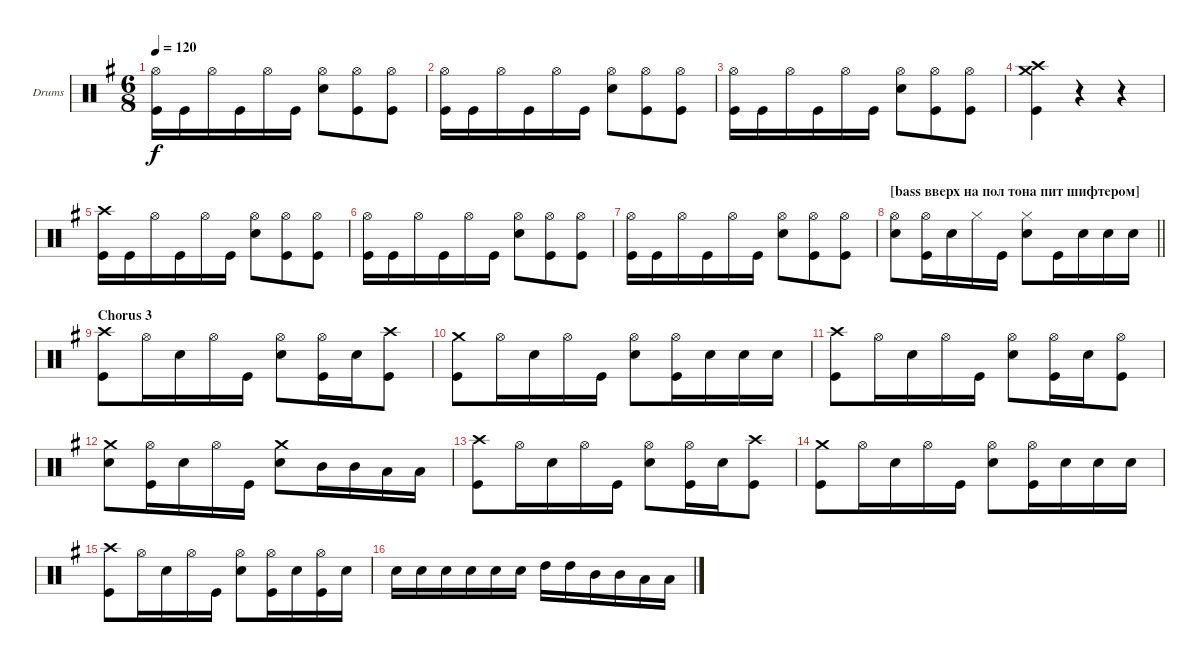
\bracketExtendMode groupsimilarinstruments
\firstSystemTrackNameOrientation horizontal
\otherSystemsTrackNameOrientation horizontal
\track ("drums (Anton Zulganov)" "Drums") {instrument percussion}
\staff {score}
\articulation defaults
\ts (6 8)
\tempo 120
\clef neutral
\ks eminor
("Kick (hit)" "Hi-Hat (open)").16{dy f} "Kick (hit)".16 "Hi-Hat (open)".16 "Kick (hit)".16 "Hi-Hat (open)".16 "Kick (hit)".16 ("Snare (hit) 2" "Hi-Hat (open)").8 ("Kick (hit)" "Hi-Hat (open)").8 ("Kick (hit)" "Hi-Hat (open)").8 |
("Kick (hit)" "Hi-Hat (open)").16 "Kick (hit)".16 "Hi-Hat (open)".16 "Kick (hit)".16 "Hi-Hat (open)".16 "Kick (hit)".16 ("Snare (hit) 2" "Hi-Hat (open)").8 ("Kick (hit)" "Hi-Hat (open)").8 ("Kick (hit)" "Hi-Hat (open)").8 |
("Kick (hit)" "Hi-Hat (open)").16 "Kick (hit)".16 "Hi-Hat (open)".16 "Kick (hit)".16 "Hi-Hat (open)".16 "Kick (hit)".16 ("Snare (hit) 2" "Hi-Hat (open)").8 ("Kick (hit)" "Hi-Hat (open)").8 ("Kick (hit)" "Hi-Hat (open)").8 |
("Kick (hit)" "Crash high (hit)" "Crash medium (hit)").4 r.4 r.4 |
("Kick (hit)" "Crash high (hit)").16 "Kick (hit)".16 "Hi-Hat (open)".16 "Kick (hit)".16 "Hi-Hat (open)".16 "Kick (hit)".16 ("Snare (hit) 2" "Hi-Hat (open)").8 ("Kick (hit)" "Hi-Hat (open)").8 ("Kick (hit)" "Hi-Hat (open)").8 |
("Kick (hit)" "Hi-Hat (open)").16 "Kick (hit)".16 "Hi-Hat (open)".16 "Kick (hit)".16 "Hi-Hat (open)".16 "Kick (hit)".16 ("Snare (hit) 2" "Hi-Hat (open)").8 ("Kick (hit)" "Hi-Hat (open)").8 ("Kick (hit)" "Hi-Hat (open)").8 |
("Kick (hit)" "Hi-Hat (open)").16 "Kick (hit)".16 "Hi-Hat (open)".16 "Kick (hit)".16 "Hi-Hat (open)".16 "Kick (hit)".16 ("Snare (hit) 2" "Hi-Hat (open)").8 ("Kick (hit)" "Hi-Hat (open)").8 ("Kick (hit)" "Hi-Hat (open)").8 |
\section ("" "[bass вверх на пол тона пит шифтером]")
\barLineRight lightlight
("Hi-Hat (open)" "Snare (hit) 2").8 ("Kick (hit)" "Hi-Hat (open)").16 "Snare (hit) 2".16 "Hi-Hat (closed)".16 "Kick (hit)".16 ("Snare (hit) 2" "Hi-Hat (closed)").8 "Kick (hit)".16 "Snare (hit) 2".16 "Snare (hit) 2".16 "Snare (hit) 2".16 |
\section ("" "Chorus 3")
("Kick (hit)" "Crash high (hit)").8 "Hi-Hat (open)".16 "Snare (hit) 2".16 "Hi-Hat (open)".16 "Kick (hit)".16 ("Snare (hit) 2" "Hi-Hat (open)").8 ("Kick (hit)" "Hi-Hat (open)").16 "Snare (hit) 2".16 ("Kick (hit)" "Crash high (hit)").8 |
("Kick (hit)" "Crash medium (hit)").8 "Hi-Hat (open)".16 "Snare (hit) 2".16 "Hi-Hat (open)".16 "Kick (hit)".16 ("Snare (hit) 2" "Hi-Hat (open)").8 ("Kick (hit)" "Hi-Hat (open)").16 "Snare (hit) 2".16 "Snare (hit) 2".16 "Snare (hit) 2".16 |
("Kick (hit)" "Crash high (hit)").8 "Hi-Hat (open)".16 "Snare (hit) 2".16 "Hi-Hat (open)".16 "Kick (hit)".16 ("Snare (hit) 2" "Hi-Hat (open)").8 ("Kick (hit)" "Hi-Hat (open)").16 "Snare (hit) 2".16 ("Kick (hit)" "Hi-Hat (open)").8 |
("Snare (hit) 2" "Crash medium (hit)").8 ("Hi-Hat (open)" "Kick (hit)").16 "Snare (hit) 2".16 "Hi-Hat (open)".16 "Kick (hit)".16 ("Snare (hit) 2" "Crash medium (hit)").8 "Mid Tom (hit)".16 "Mid Tom (hit)".16 "Low Tom (hit)".16 "Low Tom (hit)".16 |
("Kick (hit)" "Crash high (hit)").8 "Hi-Hat (open)".16 "Snare (hit) 2".16 "Hi-Hat (open)".16 "Kick (hit)".16 ("Snare (hit) 2" "Hi-Hat (open)").8 ("Kick (hit)" "Hi-Hat (open)").16 "Snare (hit) 2".16 ("Kick (hit)" "Crash high (hit)").8 |
("Kick (hit)" "Crash medium (hit)").8 "Hi-Hat (open)".16 "Snare (hit) 2".16 "Hi-Hat (open)".16 "Kick (hit)".16 ("Snare (hit) 2" "Hi-Hat (open)").8 ("Kick (hit)" "Hi-Hat (open)").16 "Snare (hit) 2".16 "Snare (hit) 2".16 "Snare (hit) 2".16 |
("Kick (hit)" "Crash high (hit)").8 "Hi-Hat (open)".16 "Snare (hit) 2".16 "Hi-Hat (open)".16 "Kick (hit)".16 ("Snare (hit) 2" "Hi-Hat (open)").8 ("Kick (hit)" "Hi-Hat (open)").16 "Snare (hit) 2".16 ("Kick (hit)" "Hi-Hat (open)").16 "Snare (hit) 2".16 |
"Snare (hit) 2".16 "Snare (hit) 2".16 "Snare (hit) 2".16 "Snare (hit) 2".16 "Snare (hit) 2".16 "Snare (hit) 2".16 "High Tom (hit)".16 "High Tom (hit)".16 "Mid Tom (hit)".16 "Mid Tom (hit)".16 "Low Tom (hit)".16 "Low Tom (hit)".16
